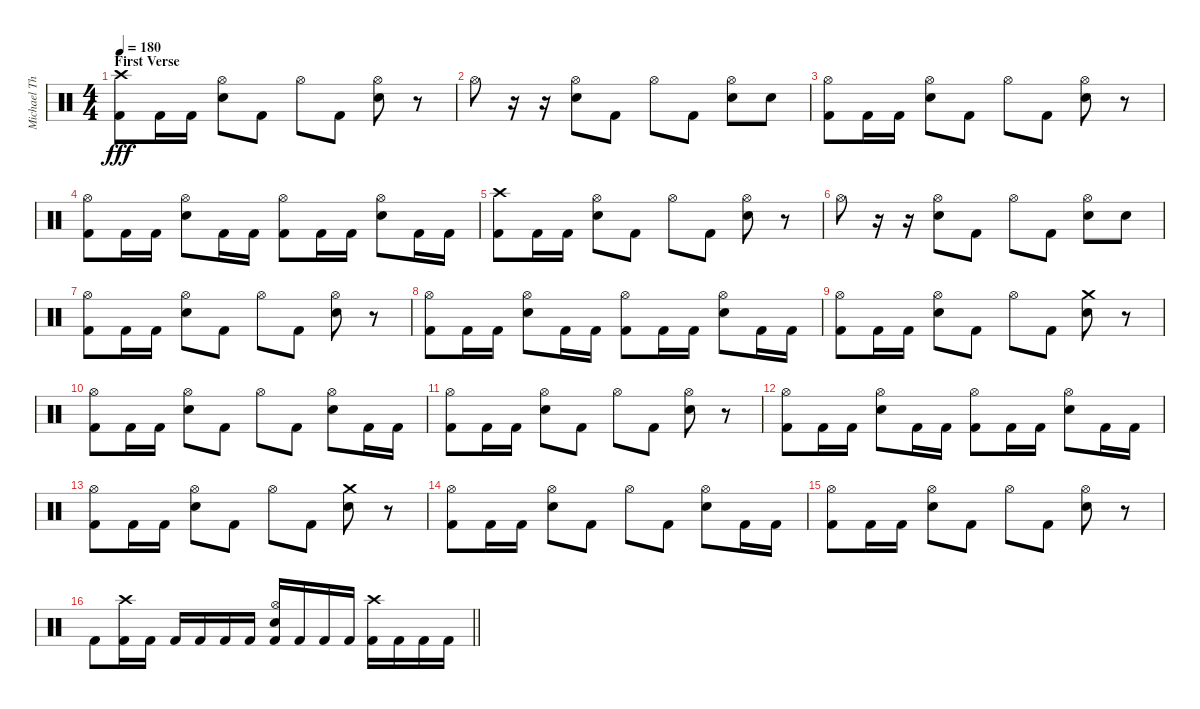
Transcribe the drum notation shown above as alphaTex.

\track ("Michael Thomas" "Michael Th") {instrument percussion}
\staff {score}
\articulation defaults
\ts (4 4)
\section ("" "First Verse")
\tempo 180
\clef neutral
\ks c
("Crash high (hit)" "Kick (hit) 2").8{dy fff} "Kick (hit) 2".16 "Kick (hit) 2".16 ("Hi-Hat (open)" "Electric Snare (hit)").8 "Kick (hit) 2".8 "Hi-Hat (open)".8 "Kick (hit) 2".8 ("Hi-Hat (open)" "Electric Snare (hit)").8 r.8 |
"Hi-Hat (open)".8 r.16 r.16 ("Hi-Hat (open)" "Electric Snare (hit)").8 "Kick (hit) 2".8 "Hi-Hat (open)".8 "Kick (hit) 2".8 ("Hi-Hat (open)" "Electric Snare (hit)").8 "Electric Snare (hit)".8 |
("Hi-Hat (open)" "Kick (hit) 2").8 "Kick (hit) 2".16 "Kick (hit) 2".16 ("Hi-Hat (open)" "Electric Snare (hit)").8 "Kick (hit) 2".8 "Hi-Hat (open)".8 "Kick (hit) 2".8 ("Hi-Hat (open)" "Electric Snare (hit)").8 r.8 |
("Hi-Hat (open)" "Kick (hit) 2").8 "Kick (hit) 2".16 "Kick (hit) 2".16 ("Hi-Hat (open)" "Electric Snare (hit)").8 "Kick (hit) 2".16 "Kick (hit) 2".16 ("Hi-Hat (open)" "Kick (hit) 2").8 "Kick (hit) 2".16 "Kick (hit) 2".16 ("Hi-Hat (open)" "Electric Snare (hit)").8 "Kick (hit) 2".16 "Kick (hit) 2".16 |
("Crash high (hit)" "Kick (hit) 2").8 "Kick (hit) 2".16 "Kick (hit) 2".16 ("Hi-Hat (open)" "Electric Snare (hit)").8 "Kick (hit) 2".8 "Hi-Hat (open)".8 "Kick (hit) 2".8 ("Hi-Hat (open)" "Electric Snare (hit)").8 r.8 |
"Hi-Hat (open)".8 r.16 r.16 ("Hi-Hat (open)" "Electric Snare (hit)").8 "Kick (hit) 2".8 "Hi-Hat (open)".8 "Kick (hit) 2".8 ("Hi-Hat (open)" "Electric Snare (hit)").8 "Electric Snare (hit)".8 |
("Hi-Hat (open)" "Kick (hit) 2").8 "Kick (hit) 2".16 "Kick (hit) 2".16 ("Hi-Hat (open)" "Electric Snare (hit)").8 "Kick (hit) 2".8 "Hi-Hat (open)".8 "Kick (hit) 2".8 ("Hi-Hat (open)" "Electric Snare (hit)").8 r.8 |
("Hi-Hat (open)" "Kick (hit) 2").8 "Kick (hit) 2".16 "Kick (hit) 2".16 ("Hi-Hat (open)" "Electric Snare (hit)").8 "Kick (hit) 2".16 "Kick (hit) 2".16 ("Hi-Hat (open)" "Kick (hit) 2").8 "Kick (hit) 2".16 "Kick (hit) 2".16 ("Hi-Hat (open)" "Electric Snare (hit)").8 "Kick (hit) 2".16 "Kick (hit) 2".16 |
("Hi-Hat (open)" "Kick (hit) 2").8 "Kick (hit) 2".16 "Kick (hit) 2".16 ("Hi-Hat (open)" "Electric Snare (hit)").8 "Kick (hit) 2".8 "Hi-Hat (open)".8 "Kick (hit) 2".8 ("Crash medium (hit)" "Electric Snare (hit)").8 r.8 |
("Hi-Hat (open)" "Kick (hit) 2").8 "Kick (hit) 2".16 "Kick (hit) 2".16 ("Hi-Hat (open)" "Electric Snare (hit)").8 "Kick (hit) 2".8 "Hi-Hat (open)".8 "Kick (hit) 2".8 ("Hi-Hat (open)" "Electric Snare (hit)").8 "Kick (hit) 2".16 "Kick (hit) 2".16 |
("Hi-Hat (open)" "Kick (hit) 2").8 "Kick (hit) 2".16 "Kick (hit) 2".16 ("Hi-Hat (open)" "Electric Snare (hit)").8 "Kick (hit) 2".8 "Hi-Hat (open)".8 "Kick (hit) 2".8 ("Hi-Hat (open)" "Electric Snare (hit)").8 r.8 |
("Hi-Hat (open)" "Kick (hit) 2").8 "Kick (hit) 2".16 "Kick (hit) 2".16 ("Hi-Hat (open)" "Electric Snare (hit)").8 "Kick (hit) 2".16 "Kick (hit) 2".16 ("Hi-Hat (open)" "Kick (hit) 2").8 "Kick (hit) 2".16 "Kick (hit) 2".16 ("Hi-Hat (open)" "Electric Snare (hit)").8 "Kick (hit) 2".16 "Kick (hit) 2".16 |
("Hi-Hat (open)" "Kick (hit) 2").8 "Kick (hit) 2".16 "Kick (hit) 2".16 ("Hi-Hat (open)" "Electric Snare (hit)").8 "Kick (hit) 2".8 "Hi-Hat (open)".8 "Kick (hit) 2".8 ("Crash medium (hit)" "Electric Snare (hit)").8 r.8 |
("Hi-Hat (open)" "Kick (hit) 2").8 "Kick (hit) 2".16 "Kick (hit) 2".16 ("Hi-Hat (open)" "Electric Snare (hit)").8 "Kick (hit) 2".8 "Hi-Hat (open)".8 "Kick (hit) 2".8 ("Hi-Hat (open)" "Electric Snare (hit)").8 "Kick (hit) 2".16 "Kick (hit) 2".16 |
("Hi-Hat (open)" "Kick (hit) 2").8 "Kick (hit) 2".16 "Kick (hit) 2".16 ("Hi-Hat (open)" "Electric Snare (hit)").8 "Kick (hit) 2".8 "Hi-Hat (open)".8 "Kick (hit) 2".8 ("Hi-Hat (open)" "Electric Snare (hit)").8 r.8 |
\barLineRight lightlight "Kick (hit) 2".8
("Crash high (hit)" "Kick (hit) 2").16 "Kick (hit) 2".16 "Kick (hit) 2".16 "Kick (hit) 2".16 "Kick (hit) 2".16 "Kick (hit) 2".16 ("Hi-Hat (open)" "Electric Snare (hit)" "Kick (hit) 2").16 "Kick (hit) 2".16 "Kick (hit) 2".16 "Kick (hit) 2".16 ("Crash high (hit)" "Kick (hit) 2").16 "Kick (hit) 2".16 "Kick (hit) 2".16 "Kick (hit) 2".16
